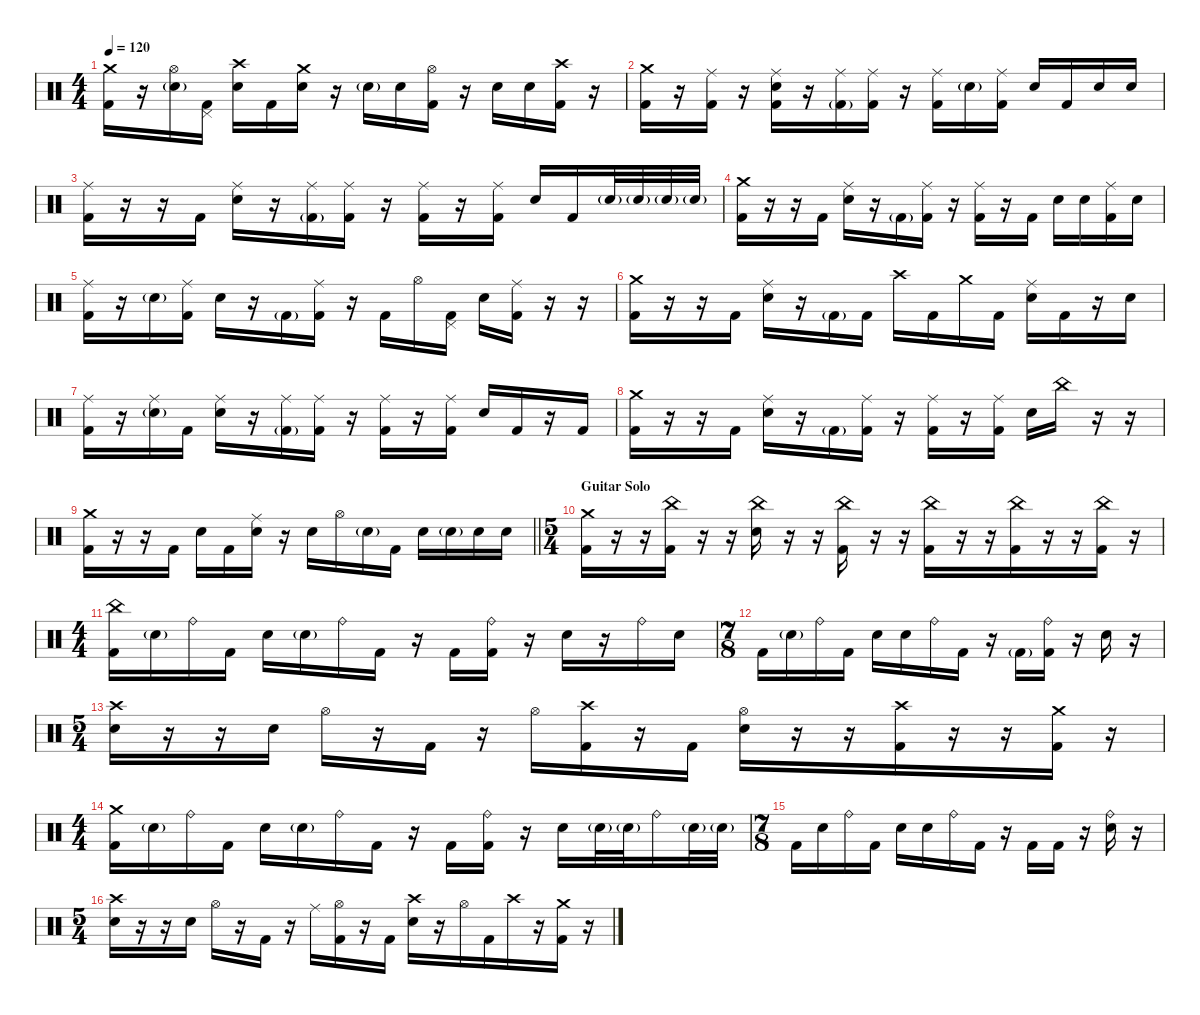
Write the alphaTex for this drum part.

\defaultSystemsLayout 4
\hideDynamics
\bracketExtendMode nobrackets
\singleTrackTrackNamePolicy hidden
\multiTrackTrackNamePolicy hidden
\firstSystemTrackNameMode fullname
\firstSystemTrackNameOrientation horizontal
\otherSystemsTrackNameOrientation horizontal
\track ("Martin Axenrot - Drums" "drm.") {instrument percussion}
\staff {score}
\articulation defaults
\ts (4 4)
\tempo 120
\clef neutral
\ks c
("Crash medium (hit)" "Kick (hit) 2").16{dy mf beam Down} r.16{beam Down} ("Hi-Hat (open)" "Snare (hit) 2"{g}).16{beam Down} ("Pedal Hi-Hat (hit)" "Kick (hit) 2").16{dy f beam Down} ("Crash high (hit)" "Snare (hit) 2").16{beam Down} "Kick (hit) 2".16{beam Down} ("Crash medium (hit)" "Snare (hit) 2").16{beam Down} r.16{beam Down} "Snare (hit) 2"{g}.16{dy mf beam Down} "Snare (hit) 2".16{dy f beam Down} ("Hi-Hat (open)" "Kick (hit) 2").16{beam Down} r.16{beam Down} "Snare (hit) 2".16{beam Down} "Snare (hit) 2".16{beam Down} ("Crash high (hit)" "Kick (hit) 2").16{beam Down} r.16{beam Down} |
("Crash medium (hit)" "Kick (hit) 2").16{beam Down} r.16{beam Down} ("Ride (middle)" "Kick (hit) 2").16{beam Down} r.16{beam Down} ("Ride (middle)" "Snare (hit) 2" "Kick (hit) 2").16{beam Down} r.16{beam Down} ("Ride (middle)" "Kick (hit) 2"{g}).16{dy mf beam Down} ("Ride (middle)" "Kick (hit) 2").16{dy f beam Down} r.16{beam Down} ("Ride (middle)" "Kick (hit) 2").16{beam Down} "Snare (hit) 2"{g}.16{dy mf beam Down} ("Ride (middle)" "Kick (hit) 2").16{dy f beam Down} "Snare (hit) 2".16{beam Up} "Kick (hit) 2".16{beam Up} "Snare (hit) 2".16{beam Up} "Snare (hit) 2".16{beam Up} |
("Ride (middle)" "Kick (hit) 2").16{beam Down} r.16{beam Down} r.16{beam Down} "Kick (hit) 2".16{beam Down} ("Ride (middle)" "Snare (hit) 2").16{beam Down} r.16{beam Down} ("Ride (middle)" "Kick (hit) 2"{g}).16{dy mf beam Down} ("Ride (middle)" "Kick (hit) 2").16{dy f beam Down} r.16{beam Down} ("Ride (middle)" "Kick (hit) 2").16{beam Down} r.16{beam Down} ("Ride (middle)" "Kick (hit) 2").16{beam Down} "Snare (hit) 2".16{beam Up} "Kick (hit) 2".16{beam Up} "Snare (hit) 2"{g}.32{dy mf beam Up} "Snare (hit) 2"{g}.32{beam Up} "Snare (hit) 2"{g}.32{beam Up} "Snare (hit) 2"{g}.32{beam Up} |
("Crash medium (hit)" "Kick (hit) 2").16{dy f beam Down} r.16{beam Down} r.16{beam Down} "Kick (hit) 2".16{beam Down} ("Ride (middle)" "Snare (hit) 2").16{beam Down} r.16{beam Down} "Kick (hit) 2"{g}.16{dy mf beam Down} ("Ride (middle)" "Kick (hit) 2").16{dy f beam Down} r.16{beam Down} ("Ride (middle)" "Kick (hit) 2").16{beam Down} r.16{beam Down} "Kick (hit) 2".16{beam Down} "Snare (hit) 2".16{beam Down} "Snare (hit) 2".16{beam Down} ("Ride (middle)" "Kick (hit) 2").16{beam Down} "Snare (hit) 2".16{beam Down} |
("Ride (middle)" "Kick (hit) 2").16{beam Down} r.16{beam Down} "Snare (hit) 2"{g}.16{dy mf beam Down} ("Ride (middle)" "Kick (hit) 2").16{dy f beam Down} "Snare (hit) 2".16{beam Down} r.16{beam Down} "Kick (hit) 2"{g}.16{dy mf beam Down} ("Ride (middle)" "Kick (hit) 2").16{dy f beam Down} r.16{beam Down} "Kick (hit) 2".16{beam Down} "Hi-Hat (open)".16{dy mp beam Down} ("Pedal Hi-Hat (hit)" "Kick (hit) 2").16{dy f beam Down} "Snare (hit) 2".16{beam Down} ("Ride (middle)" "Kick (hit) 2").16{beam Down} r.16{beam Down} r.16{beam Down} |
("Crash medium (hit)" "Kick (hit) 2").16{beam Down} r.16{beam Down} r.16{beam Down} "Kick (hit) 2".16{beam Down} ("Ride (middle)" "Snare (hit) 2").16{beam Down} r.16{beam Down} "Kick (hit) 2"{g}.16{dy mf beam Down} "Kick (hit) 2".16{dy f beam Down} "Crash high (hit)".16{beam Down} "Kick (hit) 2".16{beam Down} "Crash medium (hit)".16{beam Down} "Kick (hit) 2".16{beam Down} ("Ride (middle)" "Snare (hit) 2").16{beam Down} "Kick (hit) 2".16{beam Down} r.16{beam Down} "Snare (hit) 2".16{beam Down} |
("Ride (middle)" "Kick (hit) 2").16{beam Down} r.16{beam Down} ("Ride (middle)" "Snare (hit) 2"{g}).16{beam Down} "Kick (hit) 2".16{beam Down} ("Ride (middle)" "Snare (hit) 2").16{beam Down} r.16{beam Down} ("Ride (middle)" "Kick (hit) 2"{g}).16{dy mf beam Down} ("Ride (middle)" "Kick (hit) 2").16{dy f beam Down} r.16{beam Down} ("Ride (middle)" "Kick (hit) 2").16{beam Down} r.16{beam Down} ("Ride (middle)" "Kick (hit) 2").16{beam Down} "Snare (hit) 2".16{beam Up} "Kick (hit) 2".16{beam Up} r.16{beam Up} "Kick (hit) 2".16{beam Up} |
("Crash medium (hit)" "Kick (hit) 2").16{beam Down} r.16{beam Down} r.16{beam Down} "Kick (hit) 2".16{beam Down} ("Ride (middle)" "Snare (hit) 2").16{beam Down} r.16{beam Down} "Kick (hit) 2"{g}.16{dy mf beam Down} ("Ride (middle)" "Kick (hit) 2").16{dy f beam Down} r.16{beam Down} ("Ride (middle)" "Kick (hit) 2").16{beam Down} r.16{beam Down} ("Ride (middle)" "Kick (hit) 2").16{beam Down} "Snare (hit) 2".16{beam Down} "China (hit)".16{dy mf beam Down} r.16{beam Down} r.16{beam Down} |
\barLineRight lightlight
("Crash medium (hit)" "Kick (hit) 2").16{dy f beam Down} r.16{beam Down} r.16{beam Down} "Kick (hit) 2".16{beam Down} "Snare (hit) 2".16{beam Down} "Kick (hit) 2".16{beam Down} ("Ride (middle)" "Snare (hit) 2").16{beam Down} r.16{beam Down} "Snare (hit) 2".16{beam Down} "Hi-Hat (open)".16{beam Down} "Snare (hit) 2"{g}.16{dy mf beam Down} "Kick (hit) 2".16{dy f beam Down} "Snare (hit) 2".16{beam Down} "Snare (hit) 2"{g}.16{dy mf beam Down} "Snare (hit) 2".16{dy f beam Down} "Snare (hit) 2".16{beam Down} |
\ts (5 4)
\beaming (8 2 2 2 4)
\section ("" "Guitar Solo")
("Crash medium (hit)" "Kick (hit) 2").16{beam Down} r.16{beam Down} r.16{beam Down} ("China (hit)" "Kick (hit) 2").16{dy ff beam Down} r.16{beam Down} r.16{beam Down} ("China (hit)" "Snare (hit) 2").16{dy mf beam Down} r.16{beam Down} r.16{beam Down} ("China (hit)" "Kick (hit) 2").16{dy ff beam Down} r.16{beam Down} r.16{beam Down} ("China (hit)" "Kick (hit) 2").16{dy mf beam Down} r.16{beam Down} r.16{beam Down} ("China (hit)" "Kick (hit) 2").16{dy ff beam Down} r.16{beam Down} r.16{beam Down} ("China (hit)" "Kick (hit) 2").16{dy mf beam Down} r.16{beam Down} |
\ts (4 4)
\beaming (8 2 2 2 2)
("China (hit)" "Kick (hit) 2").16{dy f beam Down} "Snare (hit) 2"{g}.16{dy mf beam Down} "Ride (bell)".16{dy f beam Down} "Kick (hit) 2".16{beam Down} "Snare (hit) 2".16{beam Down} "Snare (hit) 2"{g}.16{dy mf beam Down} "Ride (bell)".16{dy f beam Down} "Kick (hit) 2".16{beam Down} r.16{beam Down} "Kick (hit) 2".16{dy mf beam Down} ("Ride (bell)" "Kick (hit) 2").16{dy f beam Down} r.16{beam Down} "Snare (hit) 2".16{beam Down} r.16{beam Down} "Ride (bell)".16{beam Down} "Snare (hit) 2".16{beam Down} |
\ts (7 8)
\beaming (8 2 2 2 2)
"Kick (hit) 2".16{beam Down} "Snare (hit) 2"{g}.16{dy mf beam Down} "Ride (bell)".16{dy f beam Down} "Kick (hit) 2".16{beam Down} "Snare (hit) 2".16{beam Down} "Snare (hit) 2".16{beam Down} "Ride (bell)".16{beam Down} "Kick (hit) 2".16{beam Down} r.16{beam Down} "Kick (hit) 2"{g}.16{dy mf beam Down} ("Ride (bell)" "Kick (hit) 2").16{dy f beam Down} r.16{beam Down} "Snare (hit) 2".16{beam Down} r.16{beam Down} |
\ts (5 4)
\beaming (8 2 2 2 4)
("Crash high (hit)" "Snare (hit) 2").16{beam Down} r.16{beam Down} r.16{beam Down} "Snare (hit) 2".16{beam Down} "Hi-Hat (open)".16{beam Down} r.16{beam Down} "Kick (hit) 2".16{beam Down} r.16{beam Down} "Hi-Hat (open)".16{beam Down} ("Crash high (hit)" "Kick (hit) 2").16{beam Down} r.16{beam Down} "Kick (hit) 2".16{beam Down} ("Hi-Hat (open)" "Snare (hit) 2").16{beam Down} r.16{beam Down} r.16{beam Down} ("Crash high (hit)" "Kick (hit) 2").16{beam Down} r.16{beam Down} r.16{beam Down} ("Crash medium (hit)" "Kick (hit) 2").16{beam Down} r.16{beam Down} |
\ts (4 4)
\beaming (8 2 2 2 2)
("Crash medium (hit)" "Kick (hit) 2").16{beam Down} "Snare (hit) 2"{g}.16{dy mf beam Down} "Ride (bell)".16{dy f beam Down} "Kick (hit) 2".16{beam Down} "Snare (hit) 2".16{beam Down} "Snare (hit) 2"{g}.16{dy mf beam Down} "Ride (bell)".16{dy f beam Down} "Kick (hit) 2".16{beam Down} r.16{beam Down} "Kick (hit) 2".16{dy mf beam Down} ("Ride (bell)" "Kick (hit) 2").16{dy f beam Down} r.16{beam Down} "Snare (hit) 2".16{beam Down} "Snare (hit) 2"{g}.32{dy mf beam Down} "Snare (hit) 2"{g}.32{beam Down} "Ride (bell)".16{dy f beam Down} "Snare (hit) 2"{g}.32{dy mf beam Down} "Snare (hit) 2"{g}.32{beam Down} |
\ts (7 8)
\beaming (8 2 2 2 2)
"Kick (hit) 2".16{dy f beam Down} "Snare (hit) 2".16{beam Down} "Ride (bell)".16{beam Down} "Kick (hit) 2".16{beam Down} "Snare (hit) 2".16{beam Down} "Snare (hit) 2".16{beam Down} "Ride (bell)".16{beam Down} "Kick (hit) 2".16{beam Down} r.16{beam Down} "Kick (hit) 2".16{beam Up} "Kick (hit) 2".16{beam Up} r.16{beam Up} ("Ride (bell)" "Snare (hit) 2").16{beam Down} r.16{beam Down} |
\ts (5 4)
\beaming (8 2 2 2 4)
("Crash high (hit)" "Snare (hit) 2").16{beam Down} r.16{beam Down} r.16{beam Down} "Snare (hit) 2".16{beam Down} "Hi-Hat (open)".16{beam Down} r.16{beam Down} "Kick (hit) 2".16{beam Down} r.16{beam Down} "Ride (middle)".16{beam Down} ("Hi-Hat (open)" "Kick (hit) 2").16{beam Down} r.16{beam Down} "Kick (hit) 2".16{beam Down} ("Crash high (hit)" "Snare (hit) 2").16{beam Down} r.16{beam Down} "Hi-Hat (open)".16{beam Down} "Kick (hit) 2".16{beam Down} "Crash high (hit)".16{beam Down} r.16{beam Down} ("Crash medium (hit)" "Kick (hit) 2").16{beam Down} r.16{beam Down}
